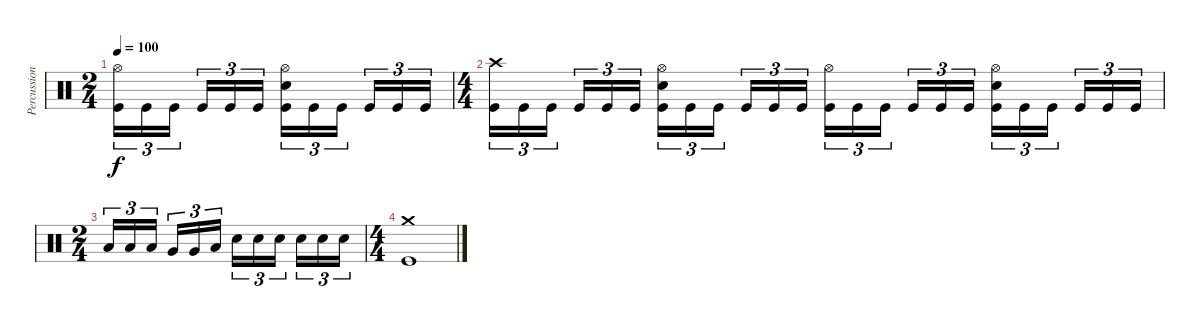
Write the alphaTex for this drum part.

\track ("Percussion" "Percussion") {instrument percussion}
\staff {score}
\articulation defaults
\ts (2 4)
\tempo 100
\clef neutral
\ks c
("Hi-Hat (open)" "Kick (hit)").16{tu (3 2) dy f} "Kick (hit)".16{tu (3 2)} "Kick (hit)".16{tu (3 2) beam splitsecondary} "Kick (hit)".16{tu (3 2)} "Kick (hit)".16{tu (3 2)} "Kick (hit)".16{tu (3 2)} ("Hi-Hat (open)" "Snare (hit) 2" "Kick (hit)").16{tu (3 2)} "Kick (hit)".16{tu (3 2)} "Kick (hit)".16{tu (3 2) beam splitsecondary} "Kick (hit)".16{tu (3 2)} "Kick (hit)".16{tu (3 2)} "Kick (hit)".16{tu (3 2)} |
\ts (4 4)
("Crash high (hit)" "Kick (hit)").16{tu (3 2)} "Kick (hit)".16{tu (3 2)} "Kick (hit)".16{tu (3 2) beam splitsecondary} "Kick (hit)".16{tu (3 2)} "Kick (hit)".16{tu (3 2)} "Kick (hit)".16{tu (3 2)} ("Hi-Hat (open)" "Snare (hit) 2" "Kick (hit)").16{tu (3 2)} "Kick (hit)".16{tu (3 2)} "Kick (hit)".16{tu (3 2) beam splitsecondary} "Kick (hit)".16{tu (3 2)} "Kick (hit)".16{tu (3 2)} "Kick (hit)".16{tu (3 2)} ("Hi-Hat (open)" "Kick (hit)").16{tu (3 2)} "Kick (hit)".16{tu (3 2)} "Kick (hit)".16{tu (3 2) beam splitsecondary} "Kick (hit)".16{tu (3 2)} "Kick (hit)".16{tu (3 2)} "Kick (hit)".16{tu (3 2)} ("Hi-Hat (open)" "Snare (hit) 2" "Kick (hit)").16{tu (3 2)} "Kick (hit)".16{tu (3 2)} "Kick (hit)".16{tu (3 2) beam splitsecondary} "Kick (hit)".16{tu (3 2)} "Kick (hit)".16{tu (3 2)} "Kick (hit)".16{tu (3 2)} |
\ts (2 4)
"Low Tom (hit)".16{tu (3 2)} "Low Tom (hit)".16{tu (3 2)} "Low Tom (hit)".16{tu (3 2) beam splitsecondary} "Very Low Tom (hit)".16{tu (3 2)} "Very Low Tom (hit)".16{tu (3 2)} "Low Floor Tom (hit)".16{tu (3 2)} "Snare (hit) 2".16{tu (3 2)} "Snare (hit) 2".16{tu (3 2)} "Snare (hit) 2".16{tu (3 2) beam splitsecondary} "Snare (hit) 2".16{tu (3 2)} "Snare (hit) 2".16{tu (3 2)} "Snare (hit) 2".16{tu (3 2)} |
\ts (4 4)
("Crash medium (hit)" "Kick (hit)").1
